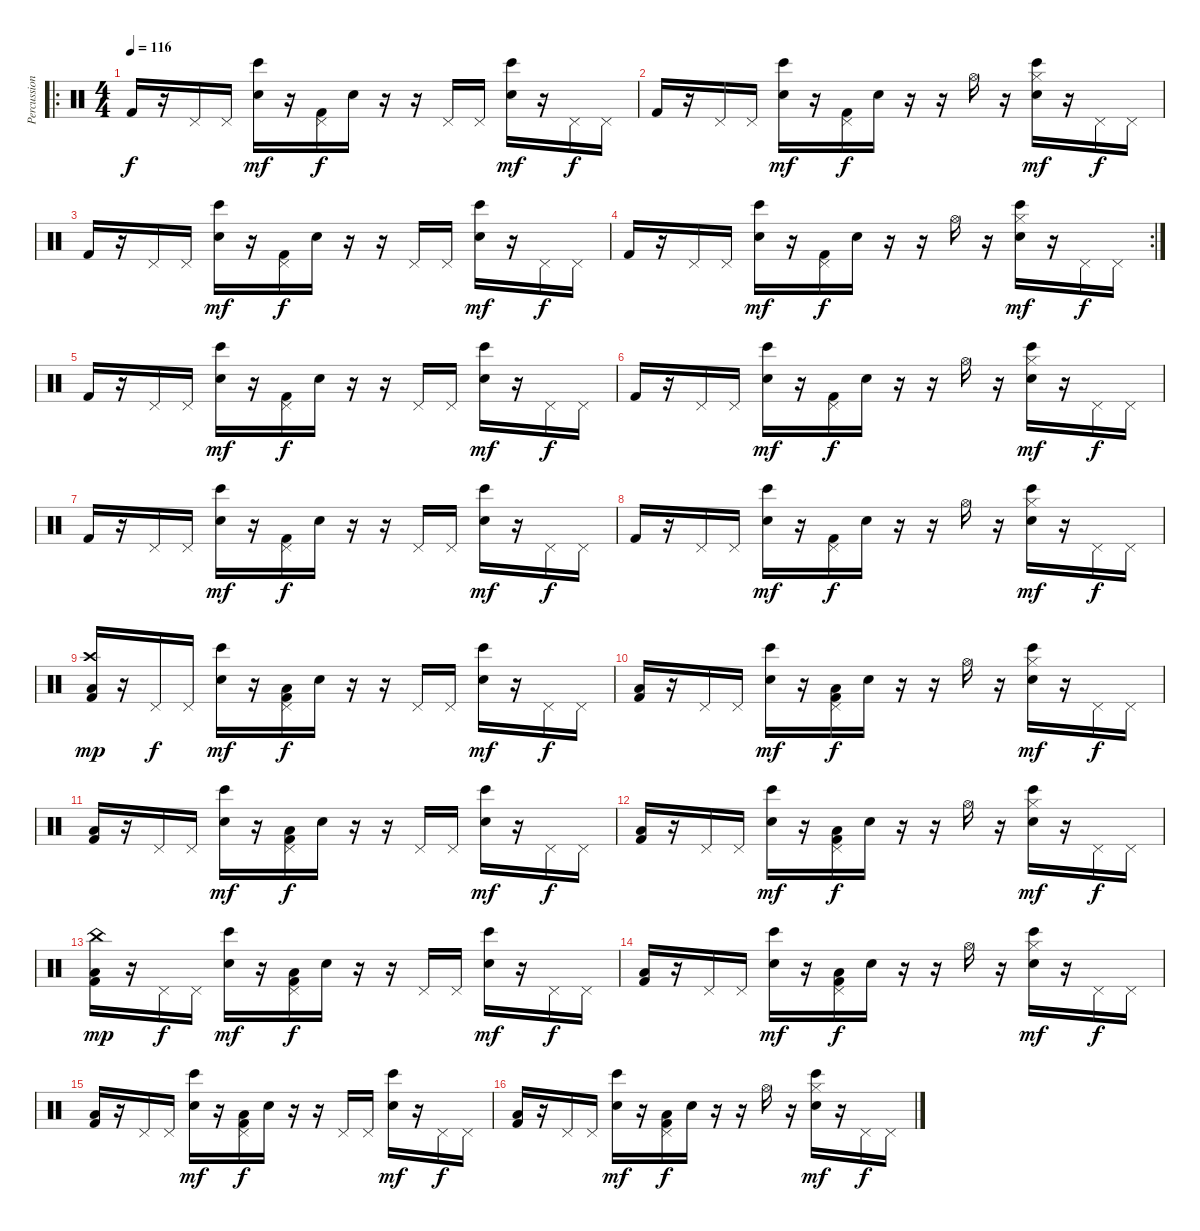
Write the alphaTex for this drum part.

\track ("Percussion" "Percussion") {instrument percussion}
\staff {score}
\articulation defaults
\ro
\ts (4 4)
\tempo 116
\clef neutral
\ks c "Kick (hit) 2".16{dy f}
r.16 "Pedal Hi-Hat (hit)".16 "Pedal Hi-Hat (hit)".16 ("Bongo High (hit)" "Hand Clap (hit)").16{dy mf} r.16 ("Pedal Hi-Hat (hit)" "Kick (hit) 2").16{dy f} "Snare (hit)".16 r.16 r.16 "Pedal Hi-Hat (hit)".16 "Pedal Hi-Hat (hit)".16 ("Bongo High (hit)" "Hand Clap (hit)").16{dy mf} r.16 "Pedal Hi-Hat (hit)".16{dy f} "Pedal Hi-Hat (hit)".16 |
"Kick (hit) 2".16 r.16 "Pedal Hi-Hat (hit)".16 "Pedal Hi-Hat (hit)".16 ("Bongo High (hit)" "Hand Clap (hit)").16{dy mf} r.16 ("Pedal Hi-Hat (hit)" "Kick (hit) 2").16{dy f} "Snare (hit)".16 r.16 r.16 "Hi-Hat (open)".16 r.16 ("Hi-Hat (closed)" "Bongo High (hit)" "Hand Clap (hit)").16{dy mf} r.16 "Pedal Hi-Hat (hit)".16{dy f} "Pedal Hi-Hat (hit)".16 |
"Kick (hit) 2".16 r.16 "Pedal Hi-Hat (hit)".16 "Pedal Hi-Hat (hit)".16 ("Bongo High (hit)" "Hand Clap (hit)").16{dy mf} r.16 ("Pedal Hi-Hat (hit)" "Kick (hit) 2").16{dy f} "Snare (hit)".16 r.16 r.16 "Pedal Hi-Hat (hit)".16 "Pedal Hi-Hat (hit)".16 ("Bongo High (hit)" "Hand Clap (hit)").16{dy mf} r.16 "Pedal Hi-Hat (hit)".16{dy f} "Pedal Hi-Hat (hit)".16 |
\rc 2 "Kick (hit) 2".16
r.16 "Pedal Hi-Hat (hit)".16 "Pedal Hi-Hat (hit)".16 ("Bongo High (hit)" "Hand Clap (hit)").16{dy mf} r.16 ("Pedal Hi-Hat (hit)" "Kick (hit) 2").16{dy f} "Snare (hit)".16 r.16 r.16 "Hi-Hat (open)".16 r.16 ("Hi-Hat (closed)" "Bongo High (hit)" "Hand Clap (hit)").16{dy mf} r.16 "Pedal Hi-Hat (hit)".16{dy f} "Pedal Hi-Hat (hit)".16 |
"Kick (hit) 2".16 r.16 "Pedal Hi-Hat (hit)".16 "Pedal Hi-Hat (hit)".16 ("Bongo High (hit)" "Hand Clap (hit)").16{dy mf} r.16 ("Pedal Hi-Hat (hit)" "Kick (hit) 2").16{dy f} "Snare (hit)".16 r.16 r.16 "Pedal Hi-Hat (hit)".16 "Pedal Hi-Hat (hit)".16 ("Bongo High (hit)" "Hand Clap (hit)").16{dy mf} r.16 "Pedal Hi-Hat (hit)".16{dy f} "Pedal Hi-Hat (hit)".16 |
"Kick (hit) 2".16 r.16 "Pedal Hi-Hat (hit)".16 "Pedal Hi-Hat (hit)".16 ("Bongo High (hit)" "Hand Clap (hit)").16{dy mf} r.16 ("Pedal Hi-Hat (hit)" "Kick (hit) 2").16{dy f} "Snare (hit)".16 r.16 r.16 "Hi-Hat (open)".16 r.16 ("Hi-Hat (closed)" "Bongo High (hit)" "Hand Clap (hit)").16{dy mf} r.16 "Pedal Hi-Hat (hit)".16{dy f} "Pedal Hi-Hat (hit)".16 |
"Kick (hit) 2".16 r.16 "Pedal Hi-Hat (hit)".16 "Pedal Hi-Hat (hit)".16 ("Bongo High (hit)" "Hand Clap (hit)").16{dy mf} r.16 ("Pedal Hi-Hat (hit)" "Kick (hit) 2").16{dy f} "Snare (hit)".16 r.16 r.16 "Pedal Hi-Hat (hit)".16 "Pedal Hi-Hat (hit)".16 ("Bongo High (hit)" "Hand Clap (hit)").16{dy mf} r.16 "Pedal Hi-Hat (hit)".16{dy f} "Pedal Hi-Hat (hit)".16 |
"Kick (hit) 2".16 r.16 "Pedal Hi-Hat (hit)".16 "Pedal Hi-Hat (hit)".16 ("Bongo High (hit)" "Hand Clap (hit)").16{dy mf} r.16 ("Pedal Hi-Hat (hit)" "Kick (hit) 2").16{dy f} "Snare (hit)".16 r.16 r.16 "Hi-Hat (open)".16 r.16 ("Hi-Hat (closed)" "Bongo High (hit)" "Hand Clap (hit)").16{dy mf} r.16 "Pedal Hi-Hat (hit)".16{dy f} "Pedal Hi-Hat (hit)".16 |
("Crash high (hit)" "Low Floor Tom (hit)" "Kick (hit) 2").16{dy mp} r.16 "Pedal Hi-Hat (hit)".16{dy f} "Pedal Hi-Hat (hit)".16 ("Bongo High (hit)" "Hand Clap (hit)").16{dy mf} r.16 ("Pedal Hi-Hat (hit)" "Low Floor Tom (hit)" "Kick (hit) 2").16{dy f} "Snare (hit)".16 r.16 r.16 "Pedal Hi-Hat (hit)".16 "Pedal Hi-Hat (hit)".16 ("Bongo High (hit)" "Hand Clap (hit)").16{dy mf} r.16 "Pedal Hi-Hat (hit)".16{dy f} "Pedal Hi-Hat (hit)".16 |
("Low Floor Tom (hit)" "Kick (hit) 2").16 r.16 "Pedal Hi-Hat (hit)".16 "Pedal Hi-Hat (hit)".16 ("Bongo High (hit)" "Hand Clap (hit)").16{dy mf} r.16 ("Pedal Hi-Hat (hit)" "Low Floor Tom (hit)" "Kick (hit) 2").16{dy f} "Snare (hit)".16 r.16 r.16 "Hi-Hat (open)".16 r.16 ("Hi-Hat (closed)" "Bongo High (hit)" "Hand Clap (hit)").16{dy mf} r.16 "Pedal Hi-Hat (hit)".16{dy f} "Pedal Hi-Hat (hit)".16 |
("Low Floor Tom (hit)" "Kick (hit) 2").16 r.16 "Pedal Hi-Hat (hit)".16 "Pedal Hi-Hat (hit)".16 ("Bongo High (hit)" "Hand Clap (hit)").16{dy mf} r.16 ("Pedal Hi-Hat (hit)" "Low Floor Tom (hit)" "Kick (hit) 2").16{dy f} "Snare (hit)".16 r.16 r.16 "Pedal Hi-Hat (hit)".16 "Pedal Hi-Hat (hit)".16 ("Bongo High (hit)" "Hand Clap (hit)").16{dy mf} r.16 "Pedal Hi-Hat (hit)".16{dy f} "Pedal Hi-Hat (hit)".16 |
("Low Floor Tom (hit)" "Kick (hit) 2").16 r.16 "Pedal Hi-Hat (hit)".16 "Pedal Hi-Hat (hit)".16 ("Bongo High (hit)" "Hand Clap (hit)").16{dy mf} r.16 ("Pedal Hi-Hat (hit)" "Low Floor Tom (hit)" "Kick (hit) 2").16{dy f} "Snare (hit)".16 r.16 r.16 "Hi-Hat (open)".16 r.16 ("Hi-Hat (closed)" "Bongo High (hit)" "Hand Clap (hit)").16{dy mf} r.16 "Pedal Hi-Hat (hit)".16{dy f} "Pedal Hi-Hat (hit)".16 |
("China (hit)" "Low Floor Tom (hit)" "Kick (hit) 2").16{dy mp} r.16 "Pedal Hi-Hat (hit)".16{dy f} "Pedal Hi-Hat (hit)".16 ("Bongo High (hit)" "Hand Clap (hit)").16{dy mf} r.16 ("Pedal Hi-Hat (hit)" "Low Floor Tom (hit)" "Kick (hit) 2").16{dy f} "Snare (hit)".16 r.16 r.16 "Pedal Hi-Hat (hit)".16 "Pedal Hi-Hat (hit)".16 ("Bongo High (hit)" "Hand Clap (hit)").16{dy mf} r.16 "Pedal Hi-Hat (hit)".16{dy f} "Pedal Hi-Hat (hit)".16 |
("Low Floor Tom (hit)" "Kick (hit) 2").16 r.16 "Pedal Hi-Hat (hit)".16 "Pedal Hi-Hat (hit)".16 ("Bongo High (hit)" "Hand Clap (hit)").16{dy mf} r.16 ("Pedal Hi-Hat (hit)" "Low Floor Tom (hit)" "Kick (hit) 2").16{dy f} "Snare (hit)".16 r.16 r.16 "Hi-Hat (open)".16 r.16 ("Hi-Hat (closed)" "Bongo High (hit)" "Hand Clap (hit)").16{dy mf} r.16 "Pedal Hi-Hat (hit)".16{dy f} "Pedal Hi-Hat (hit)".16 |
("Low Floor Tom (hit)" "Kick (hit) 2").16 r.16 "Pedal Hi-Hat (hit)".16 "Pedal Hi-Hat (hit)".16 ("Bongo High (hit)" "Hand Clap (hit)").16{dy mf} r.16 ("Pedal Hi-Hat (hit)" "Low Floor Tom (hit)" "Kick (hit) 2").16{dy f} "Snare (hit)".16 r.16 r.16 "Pedal Hi-Hat (hit)".16 "Pedal Hi-Hat (hit)".16 ("Bongo High (hit)" "Hand Clap (hit)").16{dy mf} r.16 "Pedal Hi-Hat (hit)".16{dy f} "Pedal Hi-Hat (hit)".16 |
("Low Floor Tom (hit)" "Kick (hit) 2").16 r.16 "Pedal Hi-Hat (hit)".16 "Pedal Hi-Hat (hit)".16 ("Bongo High (hit)" "Hand Clap (hit)").16{dy mf} r.16 ("Pedal Hi-Hat (hit)" "Low Floor Tom (hit)" "Kick (hit) 2").16{dy f} "Snare (hit)".16 r.16 r.16 "Hi-Hat (open)".16 r.16 ("Hi-Hat (closed)" "Bongo High (hit)" "Hand Clap (hit)").16{dy mf} r.16 "Pedal Hi-Hat (hit)".16{dy f} "Pedal Hi-Hat (hit)".16
